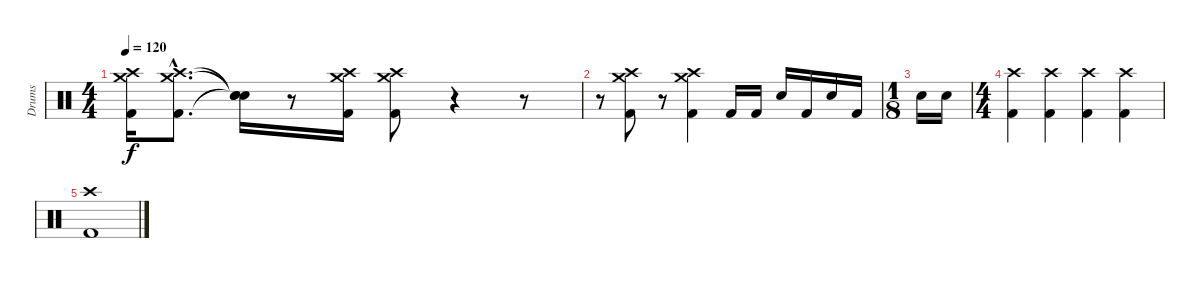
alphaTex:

\track ("Drums" "Drums") {instrument percussion}
\staff {score}
\articulation defaults
\ts (4 4)
\tempo 120
\clef neutral
\ks c
("Crash high (hit)" "Crash medium (hit)" "Kick (hit) 2").16{dy f} ("Crash high (hit)"{hac} "Crash medium (hit)"{hac} "Kick (hit) 2"{hac}).8{d} ("Snare (hit)"{t} "Snare (hit)"{t} "Snare (hit)"{t}).16 r.8 ("Crash high (hit)" "Crash medium (hit)" "Kick (hit) 2").16 ("Crash high (hit)" "Crash medium (hit)" "Kick (hit) 2").8 r.4 r.8 |
r.8 ("Crash high (hit)" "Crash medium (hit)" "Kick (hit) 2").8 r.8 ("Crash high (hit)" "Crash medium (hit)" "Kick (hit) 2").4 "Kick (hit) 2".16 "Kick (hit) 2".16 "Snare (hit) 2".16 "Kick (hit) 2".16 "Snare (hit) 2".16 "Kick (hit) 2".16 |
\ts (1 8)
"Snare (hit) 2".16 "Snare (hit) 2".16 |
\ts (4 4)
("Crash high (hit)" "Kick (hit) 2").4 ("Crash high (hit)" "Kick (hit) 2").4{volume 9} ("Crash high (hit)" "Kick (hit) 2").4{volume 7} ("Crash high (hit)" "Kick (hit) 2").4{volume 5} |
("Crash high (hit)" "Kick (hit) 2").1{volume 3}
